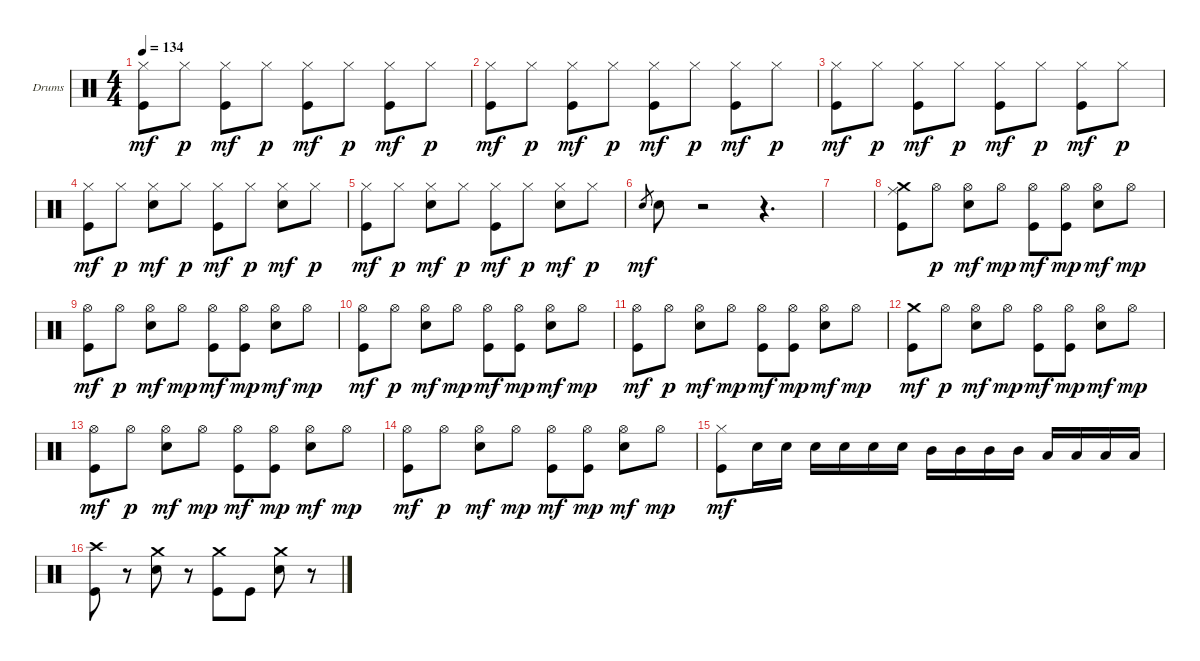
\defaultSystemsLayout 4
\bracketExtendMode groupsimilarinstruments
\firstSystemTrackNameOrientation horizontal
\otherSystemsTrackNameOrientation horizontal
\track ("Drums" "Drums") {instrument percussion}
\staff {score}
\articulation defaults
\ts (4 4)
\tempo 134
\clef neutral
\ks c
("Kick (hit)" "Hi-Hat (closed)").8{dy mf} "Hi-Hat (closed)".8{dy p} ("Kick (hit)" "Hi-Hat (closed)").8{dy mf} "Hi-Hat (closed)".8{dy p} ("Kick (hit)" "Hi-Hat (closed)").8{dy mf} "Hi-Hat (closed)".8{dy p} ("Kick (hit)" "Hi-Hat (closed)").8{dy mf} "Hi-Hat (closed)".8{dy p} |
("Kick (hit)" "Hi-Hat (closed)").8{dy mf} "Hi-Hat (closed)".8{dy p} ("Kick (hit)" "Hi-Hat (closed)").8{dy mf} "Hi-Hat (closed)".8{dy p} ("Kick (hit)" "Hi-Hat (closed)").8{dy mf} "Hi-Hat (closed)".8{dy p} ("Kick (hit)" "Hi-Hat (closed)").8{dy mf} "Hi-Hat (closed)".8{dy p} |
("Kick (hit)" "Hi-Hat (closed)").8{dy mf} "Hi-Hat (closed)".8{dy p} ("Kick (hit)" "Hi-Hat (closed)").8{dy mf} "Hi-Hat (closed)".8{dy p} ("Kick (hit)" "Hi-Hat (closed)").8{dy mf} "Hi-Hat (closed)".8{dy p} ("Kick (hit)" "Hi-Hat (closed)").8{dy mf} "Hi-Hat (closed)".8{dy p} |
("Kick (hit)" "Hi-Hat (closed)").8{dy mf} "Hi-Hat (closed)".8{dy p} ("Hi-Hat (closed)" "Snare (hit) 2").8{dy mf} "Hi-Hat (closed)".8{dy p} ("Kick (hit)" "Hi-Hat (closed)").8{dy mf} "Hi-Hat (closed)".8{dy p} ("Hi-Hat (closed)" "Snare (hit) 2").8{dy mf} "Hi-Hat (closed)".8{dy p} |
("Kick (hit)" "Hi-Hat (closed)").8{dy mf} "Hi-Hat (closed)".8{dy p} ("Hi-Hat (closed)" "Snare (hit) 2").8{dy mf} "Hi-Hat (closed)".8{dy p} ("Kick (hit)" "Hi-Hat (closed)").8{dy mf} "Hi-Hat (closed)".8{dy p} ("Hi-Hat (closed)" "Snare (hit) 2").8{dy mf} "Hi-Hat (closed)".8{dy p} |
"Snare (hit) 2".8{gr dy mf} "Snare (hit) 2".8 r.2 r.4{d} |
|
("Kick (hit)" "Ride (middle)" "Crash medium (hit)").8 "Hi-Hat (open)".8{dy p} ("Hi-Hat (open)" "Snare (hit) 2").8{dy mf} "Hi-Hat (open)".8{dy mp} ("Hi-Hat (open)" "Kick (hit)").8{dy mf} ("Hi-Hat (open)" "Kick (hit)").8{dy mp} ("Hi-Hat (open)" "Snare (hit) 2").8{dy mf} "Hi-Hat (open)".8{dy mp} |
("Hi-Hat (open)" "Kick (hit)").8{dy mf} "Hi-Hat (open)".8{dy p} ("Hi-Hat (open)" "Snare (hit) 2").8{dy mf} "Hi-Hat (open)".8{dy mp} ("Hi-Hat (open)" "Kick (hit)").8{dy mf} ("Hi-Hat (open)" "Kick (hit)").8{dy mp} ("Hi-Hat (open)" "Snare (hit) 2").8{dy mf} "Hi-Hat (open)".8{dy mp} |
("Hi-Hat (open)" "Kick (hit)").8{dy mf} "Hi-Hat (open)".8{dy p} ("Hi-Hat (open)" "Snare (hit) 2").8{dy mf} "Hi-Hat (open)".8{dy mp} ("Hi-Hat (open)" "Kick (hit)").8{dy mf} ("Hi-Hat (open)" "Kick (hit)").8{dy mp} ("Hi-Hat (open)" "Snare (hit) 2").8{dy mf} "Hi-Hat (open)".8{dy mp} |
("Hi-Hat (open)" "Kick (hit)").8{dy mf} "Hi-Hat (open)".8{dy p} ("Hi-Hat (open)" "Snare (hit) 2").8{dy mf} "Hi-Hat (open)".8{dy mp} ("Hi-Hat (open)" "Kick (hit)").8{dy mf} ("Hi-Hat (open)" "Kick (hit)").8{dy mp} ("Hi-Hat (open)" "Snare (hit) 2").8{dy mf} "Hi-Hat (open)".8{dy mp} |
("Kick (hit)" "Crash medium (hit)").8{dy mf} "Hi-Hat (open)".8{dy p} ("Hi-Hat (open)" "Snare (hit) 2").8{dy mf} "Hi-Hat (open)".8{dy mp} ("Hi-Hat (open)" "Kick (hit)").8{dy mf} ("Hi-Hat (open)" "Kick (hit)").8{dy mp} ("Hi-Hat (open)" "Snare (hit) 2").8{dy mf} "Hi-Hat (open)".8{dy mp} |
("Hi-Hat (open)" "Kick (hit)").8{dy mf} "Hi-Hat (open)".8{dy p} ("Hi-Hat (open)" "Snare (hit) 2").8{dy mf} "Hi-Hat (open)".8{dy mp} ("Hi-Hat (open)" "Kick (hit)").8{dy mf} ("Hi-Hat (open)" "Kick (hit)").8{dy mp} ("Hi-Hat (open)" "Snare (hit) 2").8{dy mf} "Hi-Hat (open)".8{dy mp} |
("Hi-Hat (open)" "Kick (hit)").8{dy mf} "Hi-Hat (open)".8{dy p} ("Hi-Hat (open)" "Snare (hit) 2").8{dy mf} "Hi-Hat (open)".8{dy mp} ("Hi-Hat (open)" "Kick (hit)").8{dy mf} ("Hi-Hat (open)" "Kick (hit)").8{dy mp} ("Hi-Hat (open)" "Snare (hit) 2").8{dy mf} "Hi-Hat (open)".8{dy mp} |
("Hi-Hat (closed)" "Kick (hit)").8{dy mf} "Snare (hit) 2".16 "Snare (hit) 2".16 "Snare (hit) 2".16 "Snare (hit) 2".16 "Snare (hit) 2".16 "Snare (hit) 2".16 "Mid Tom (hit)".16 "Mid Tom (hit)".16 "Mid Tom (hit)".16 "Mid Tom (hit)".16 "Low Tom (hit)".16 "Low Tom (hit)".16 "Low Tom (hit)".16 "Low Tom (hit)".16 |
("Kick (hit)" "Crash high (hit)").8 r.8 ("Snare (hit) 2" "Crash medium (hit)").8 r.8 ("Kick (hit)" "Crash medium (hit)").8 "Kick (hit)".8 ("Snare (hit) 2" "Crash medium (hit)").8 r.8
